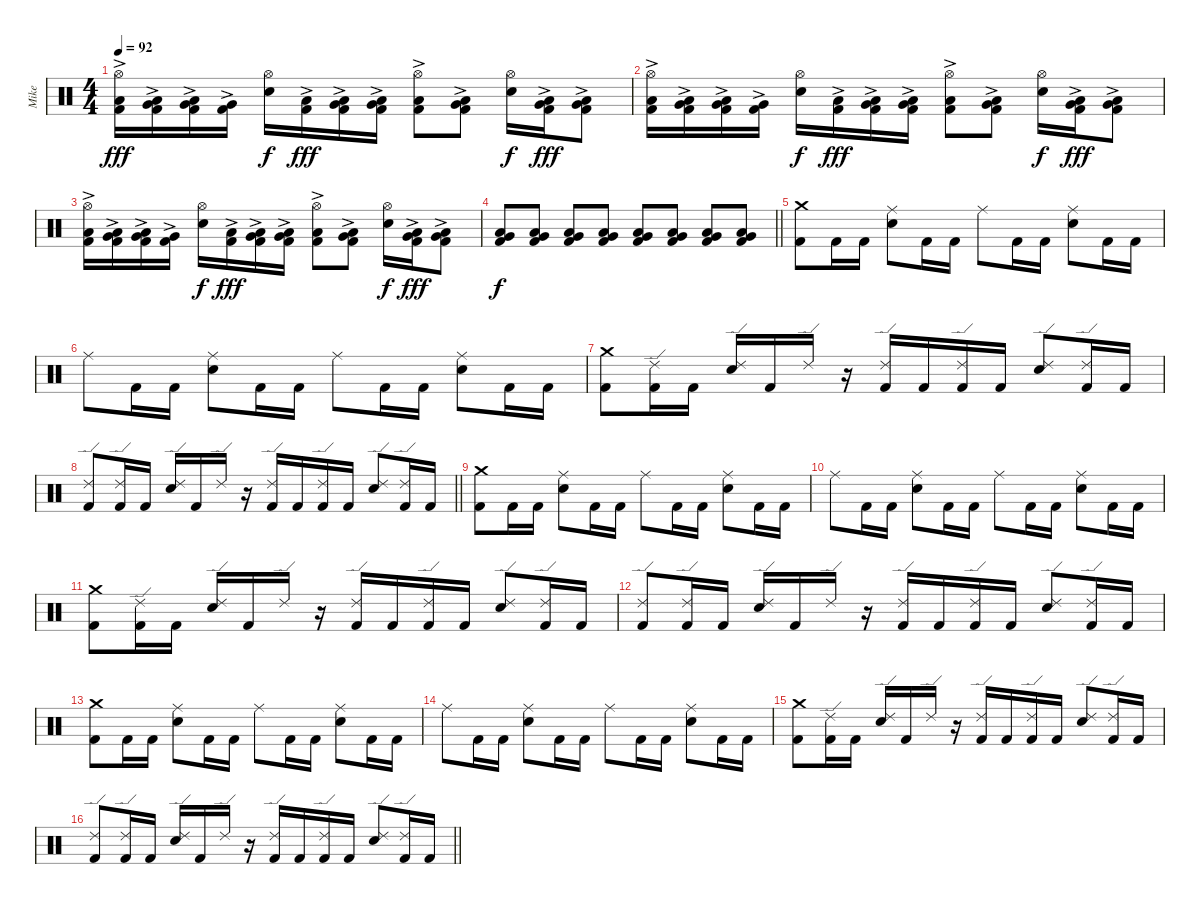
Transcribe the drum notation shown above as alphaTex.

\track ("Mike" "Mike") {instrument percussion}
\staff {score}
\articulation defaults
\ts (4 4)
\tempo 92
\clef neutral
\ks c
("Hi-Hat (open)" "Low Tom (hit)"{ac} "Kick (hit) 2").16{dy fff} ("Low Tom (hit)"{ac} "Very Low Tom (hit)"{ac} "Kick (hit) 2").16 ("Very Low Tom (hit)"{ac} "Low Floor Tom (hit)"{ac} "Kick (hit) 2").16 ("Very Low Tom (hit)"{ac} "Kick (hit) 2").16 ("Hi-Hat (open)" "Snare (hit) 2").16{dy f} ("Low Tom (hit)"{ac} "Kick (hit) 2").16{dy fff} ("Low Tom (hit)"{ac} "Very Low Tom (hit)"{ac} "Kick (hit) 2").16 ("Very Low Tom (hit)"{ac} "Low Floor Tom (hit)"{ac} "Kick (hit) 2").16 ("Hi-Hat (open)" "Low Floor Tom (hit)"{ac} "Kick (hit) 2").8 ("Very Low Tom (hit)"{ac} "Low Floor Tom (hit)"{ac} "Kick (hit) 2").8 ("Hi-Hat (open)" "Snare (hit) 2").16{dy f} ("Very Low Tom (hit)"{ac} "Low Floor Tom (hit)"{ac} "Kick (hit) 2").16{dy fff} ("Very Low Tom (hit)"{ac} "Low Tom (hit)"{ac} "Kick (hit) 2").8 |
("Hi-Hat (open)" "Low Tom (hit)"{ac} "Kick (hit) 2").16 ("Low Tom (hit)"{ac} "Very Low Tom (hit)"{ac} "Kick (hit) 2").16 ("Very Low Tom (hit)"{ac} "Low Floor Tom (hit)"{ac} "Kick (hit) 2").16 ("Very Low Tom (hit)"{ac} "Kick (hit) 2").16 ("Hi-Hat (open)" "Snare (hit) 2").16{dy f} ("Low Tom (hit)"{ac} "Kick (hit) 2").16{dy fff} ("Low Tom (hit)"{ac} "Very Low Tom (hit)"{ac} "Kick (hit) 2").16 ("Very Low Tom (hit)"{ac} "Low Floor Tom (hit)"{ac} "Kick (hit) 2").16 ("Hi-Hat (open)" "Low Floor Tom (hit)"{ac} "Kick (hit) 2").8 ("Very Low Tom (hit)"{ac} "Low Floor Tom (hit)"{ac} "Kick (hit) 2").8 ("Hi-Hat (open)" "Snare (hit) 2").16{dy f} ("Very Low Tom (hit)"{ac} "Low Floor Tom (hit)"{ac} "Kick (hit) 2").16{dy fff} ("Very Low Tom (hit)"{ac} "Low Tom (hit)"{ac} "Kick (hit) 2").8 |
("Hi-Hat (open)" "Low Tom (hit)"{ac} "Kick (hit) 2").16 ("Low Tom (hit)"{ac} "Very Low Tom (hit)"{ac} "Kick (hit) 2").16 ("Very Low Tom (hit)"{ac} "Low Floor Tom (hit)"{ac} "Kick (hit) 2").16 ("Very Low Tom (hit)"{ac} "Kick (hit) 2").16 ("Hi-Hat (open)" "Snare (hit) 2").16{dy f} ("Low Tom (hit)"{ac} "Kick (hit) 2").16{dy fff} ("Low Tom (hit)"{ac} "Very Low Tom (hit)"{ac} "Kick (hit) 2").16 ("Very Low Tom (hit)"{ac} "Low Floor Tom (hit)"{ac} "Kick (hit) 2").16 ("Hi-Hat (open)" "Low Floor Tom (hit)"{ac} "Kick (hit) 2").8 ("Very Low Tom (hit)"{ac} "Low Floor Tom (hit)"{ac} "Kick (hit) 2").8 ("Hi-Hat (open)" "Snare (hit) 2").16{dy f} ("Very Low Tom (hit)"{ac} "Low Floor Tom (hit)"{ac} "Kick (hit) 2").16{dy fff} ("Very Low Tom (hit)"{ac} "Low Tom (hit)"{ac} "Kick (hit) 2").8 |
\barLineRight lightlight
("Low Tom (hit)" "Very Low Tom (hit)" "Kick (hit) 2").8{dy f} ("Low Tom (hit)" "Very Low Tom (hit)" "Kick (hit) 2").8 ("Low Tom (hit)" "Very Low Tom (hit)" "Kick (hit) 2").8 ("Low Tom (hit)" "Very Low Tom (hit)" "Kick (hit) 2").8 ("Low Tom (hit)" "Very Low Tom (hit)" "Kick (hit) 2").8 ("Low Tom (hit)" "Very Low Tom (hit)" "Kick (hit) 2").8 ("Low Tom (hit)" "Very Low Tom (hit)" "Kick (hit) 2").8 ("Low Tom (hit)" "Very Low Tom (hit)" "Kick (hit) 2").8 |
("Crash medium (hit)" "Kick (hit) 2").8 "Kick (hit) 2".16 "Kick (hit) 2".16 ("Ride (middle)" "Snare (hit) 2").8 "Kick (hit) 2".16 "Kick (hit) 2".16 "Ride (middle)".8 "Kick (hit) 2".16 "Kick (hit) 2".16 ("Ride (middle)" "Snare (hit) 2").8 "Kick (hit) 2".16 "Kick (hit) 2".16 |
"Ride (middle)".8 "Kick (hit) 2".16 "Kick (hit) 2".16 ("Ride (middle)" "Snare (hit) 2").8 "Kick (hit) 2".16 "Kick (hit) 2".16 "Ride (middle)".8 "Kick (hit) 2".16 "Kick (hit) 2".16 ("Ride (middle)" "Snare (hit) 2").8 "Kick (hit) 2".16 "Kick (hit) 2".16 |
("Crash medium (hit)" "Kick (hit) 2").8 ("Ride (edge) 2" "Kick (hit) 2").16 "Kick (hit) 2".16 ("Ride (edge) 2" "Snare (hit) 2").16 "Kick (hit) 2".16 "Ride (edge) 2".16 r.16 ("Ride (edge) 2" "Kick (hit) 2").16 "Kick (hit) 2".16 ("Ride (edge) 2" "Kick (hit) 2").16 "Kick (hit) 2".16 ("Ride (edge) 2" "Snare (hit) 2").8 ("Ride (edge) 2" "Kick (hit) 2").16 "Kick (hit) 2".16 |
\barLineRight lightlight
("Ride (edge) 2" "Kick (hit) 2").8 ("Ride (edge) 2" "Kick (hit) 2").16 "Kick (hit) 2".16 ("Ride (edge) 2" "Snare (hit) 2").16 "Kick (hit) 2".16 "Ride (edge) 2".16 r.16 ("Ride (edge) 2" "Kick (hit) 2").16 "Kick (hit) 2".16 ("Ride (edge) 2" "Kick (hit) 2").16 "Kick (hit) 2".16 ("Ride (edge) 2" "Snare (hit) 2").8 ("Ride (edge) 2" "Kick (hit) 2").16 "Kick (hit) 2".16 |
("Crash medium (hit)" "Kick (hit) 2").8 "Kick (hit) 2".16 "Kick (hit) 2".16 ("Ride (middle)" "Snare (hit) 2").8 "Kick (hit) 2".16 "Kick (hit) 2".16 "Ride (middle)".8 "Kick (hit) 2".16 "Kick (hit) 2".16 ("Ride (middle)" "Snare (hit) 2").8 "Kick (hit) 2".16 "Kick (hit) 2".16 |
"Ride (middle)".8 "Kick (hit) 2".16 "Kick (hit) 2".16 ("Ride (middle)" "Snare (hit) 2").8 "Kick (hit) 2".16 "Kick (hit) 2".16 "Ride (middle)".8 "Kick (hit) 2".16 "Kick (hit) 2".16 ("Ride (middle)" "Snare (hit) 2").8 "Kick (hit) 2".16 "Kick (hit) 2".16 |
("Crash medium (hit)" "Kick (hit) 2").8 ("Ride (edge) 2" "Kick (hit) 2").16 "Kick (hit) 2".16 ("Ride (edge) 2" "Snare (hit) 2").16 "Kick (hit) 2".16 "Ride (edge) 2".16 r.16 ("Ride (edge) 2" "Kick (hit) 2").16 "Kick (hit) 2".16 ("Ride (edge) 2" "Kick (hit) 2").16 "Kick (hit) 2".16 ("Ride (edge) 2" "Snare (hit) 2").8 ("Ride (edge) 2" "Kick (hit) 2").16 "Kick (hit) 2".16 |
("Ride (edge) 2" "Kick (hit) 2").8 ("Ride (edge) 2" "Kick (hit) 2").16 "Kick (hit) 2".16 ("Ride (edge) 2" "Snare (hit) 2").16 "Kick (hit) 2".16 "Ride (edge) 2".16 r.16 ("Ride (edge) 2" "Kick (hit) 2").16 "Kick (hit) 2".16 ("Ride (edge) 2" "Kick (hit) 2").16 "Kick (hit) 2".16 ("Ride (edge) 2" "Snare (hit) 2").8 ("Ride (edge) 2" "Kick (hit) 2").16 "Kick (hit) 2".16 |
("Crash medium (hit)" "Kick (hit) 2").8 "Kick (hit) 2".16 "Kick (hit) 2".16 ("Ride (middle)" "Snare (hit) 2").8 "Kick (hit) 2".16 "Kick (hit) 2".16 "Ride (middle)".8 "Kick (hit) 2".16 "Kick (hit) 2".16 ("Ride (middle)" "Snare (hit) 2").8 "Kick (hit) 2".16 "Kick (hit) 2".16 |
"Ride (middle)".8 "Kick (hit) 2".16 "Kick (hit) 2".16 ("Ride (middle)" "Snare (hit) 2").8 "Kick (hit) 2".16 "Kick (hit) 2".16 "Ride (middle)".8 "Kick (hit) 2".16 "Kick (hit) 2".16 ("Ride (middle)" "Snare (hit) 2").8 "Kick (hit) 2".16 "Kick (hit) 2".16 |
("Crash medium (hit)" "Kick (hit) 2").8 ("Ride (edge) 2" "Kick (hit) 2").16 "Kick (hit) 2".16 ("Ride (edge) 2" "Snare (hit) 2").16 "Kick (hit) 2".16 "Ride (edge) 2".16 r.16 ("Ride (edge) 2" "Kick (hit) 2").16 "Kick (hit) 2".16 ("Ride (edge) 2" "Kick (hit) 2").16 "Kick (hit) 2".16 ("Ride (edge) 2" "Snare (hit) 2").8 ("Ride (edge) 2" "Kick (hit) 2").16 "Kick (hit) 2".16 |
\barLineRight lightlight
("Ride (edge) 2" "Kick (hit) 2").8 ("Ride (edge) 2" "Kick (hit) 2").16 "Kick (hit) 2".16 ("Ride (edge) 2" "Snare (hit) 2").16 "Kick (hit) 2".16 "Ride (edge) 2".16 r.16 ("Ride (edge) 2" "Kick (hit) 2").16 "Kick (hit) 2".16 ("Ride (edge) 2" "Kick (hit) 2").16 "Kick (hit) 2".16 ("Ride (edge) 2" "Snare (hit) 2").8 ("Ride (edge) 2" "Kick (hit) 2").16 "Kick (hit) 2".16
